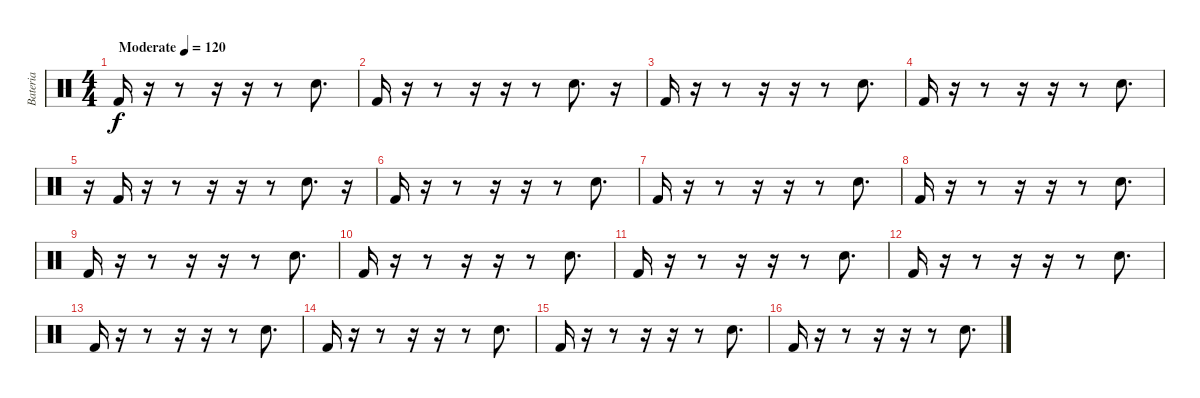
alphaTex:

\track ("Bateria" "Bateria") {instrument percussion bank 127}
\staff {score}
\articulation defaults
\ts (4 4)
\tempo (120 "Moderate")
\clef neutral
\ks c "Kick (hit) 2".16{dy f}
r.16 r.8 r.16 r.16 r.8 "Snare (hit) 2".8{d} |
"Kick (hit) 2".16 r.16 r.8 r.16 r.16 r.8 "Snare (hit) 2".8{d} r.16 |
"Kick (hit) 2".16 r.16 r.8 r.16 r.16 r.8 "Snare (hit) 2".8{d} |
"Kick (hit) 2".16 r.16 r.8 r.16 r.16 r.8 "Snare (hit) 2".8{d} |
r.16 "Kick (hit) 2".16 r.16 r.8 r.16 r.16 r.8 "Snare (hit) 2".8{d} r.16 |
"Kick (hit) 2".16 r.16 r.8 r.16 r.16 r.8 "Snare (hit) 2".8{d} |
"Kick (hit) 2".16 r.16 r.8 r.16 r.16 r.8 "Snare (hit) 2".8{d} |
"Kick (hit) 2".16 r.16 r.8 r.16 r.16 r.8 "Snare (hit) 2".8{d} |
"Kick (hit) 2".16 r.16 r.8 r.16 r.16 r.8 "Snare (hit) 2".8{d} |
"Kick (hit) 2".16 r.16 r.8 r.16 r.16 r.8 "Snare (hit) 2".8{d} |
"Kick (hit) 2".16 r.16 r.8 r.16 r.16 r.8 "Snare (hit) 2".8{d} |
"Kick (hit) 2".16 r.16 r.8 r.16 r.16 r.8 "Snare (hit) 2".8{d} |
"Kick (hit) 2".16 r.16 r.8 r.16 r.16 r.8 "Snare (hit) 2".8{d} |
"Kick (hit) 2".16 r.16 r.8 r.16 r.16 r.8 "Snare (hit) 2".8{d} |
"Kick (hit) 2".16 r.16 r.8 r.16 r.16 r.8 "Snare (hit) 2".8{d} |
"Kick (hit) 2".16 r.16 r.8 r.16 r.16 r.8 "Snare (hit) 2".8{d}
